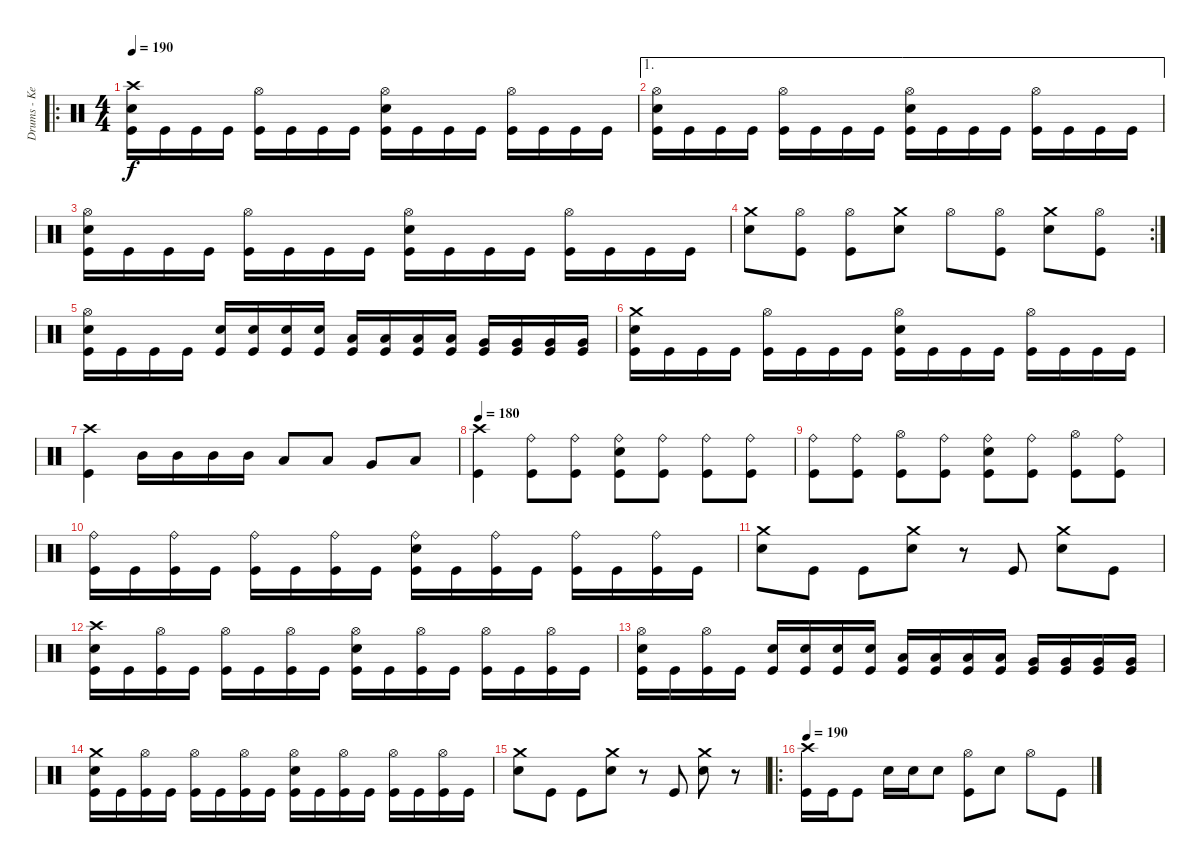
\track ("Drums - Kevin" "Drums - Ke") {instrument percussion}
\staff {score}
\articulation defaults
\ro
\ts (4 4)
\tempo 190
\clef neutral
\ks c
("Crash high (hit)" "Electric Snare (hit)" "Kick (hit)").16{dy f} "Kick (hit)".16 "Kick (hit)".16 "Kick (hit)".16 ("Hi-Hat (open)" "Kick (hit)").16 "Kick (hit)".16 "Kick (hit)".16 "Kick (hit)".16 ("Hi-Hat (open)" "Electric Snare (hit)" "Kick (hit)").16 "Kick (hit)".16 "Kick (hit)".16 "Kick (hit)".16 ("Hi-Hat (open)" "Kick (hit)").16 "Kick (hit)".16 "Kick (hit)".16 "Kick (hit)".16 |
\ae 1
("Hi-Hat (open)" "Electric Snare (hit)" "Kick (hit)").16 "Kick (hit)".16 "Kick (hit)".16 "Kick (hit)".16 ("Hi-Hat (open)" "Kick (hit)").16 "Kick (hit)".16 "Kick (hit)".16 "Kick (hit)".16 ("Hi-Hat (open)" "Electric Snare (hit)" "Kick (hit)").16 "Kick (hit)".16 "Kick (hit)".16 "Kick (hit)".16 ("Hi-Hat (open)" "Kick (hit)").16 "Kick (hit)".16 "Kick (hit)".16 "Kick (hit)".16 |
("Hi-Hat (open)" "Electric Snare (hit)" "Kick (hit)").16 "Kick (hit)".16 "Kick (hit)".16 "Kick (hit)".16 ("Hi-Hat (open)" "Kick (hit)").16 "Kick (hit)".16 "Kick (hit)".16 "Kick (hit)".16 ("Hi-Hat (open)" "Electric Snare (hit)" "Kick (hit)").16 "Kick (hit)".16 "Kick (hit)".16 "Kick (hit)".16 ("Hi-Hat (open)" "Kick (hit)").16 "Kick (hit)".16 "Kick (hit)".16 "Kick (hit)".16 |
\rc 2
("Crash medium (hit)" "Electric Snare (hit)").8 ("Hi-Hat (open)" "Kick (hit)").8 ("Hi-Hat (open)" "Kick (hit)").8 ("Crash medium (hit)" "Electric Snare (hit)").8 "Hi-Hat (open)".8 ("Hi-Hat (open)" "Kick (hit)").8 ("Crash medium (hit)" "Electric Snare (hit)").8 ("Hi-Hat (open)" "Kick (hit)").8 |
("Hi-Hat (open)" "Electric Snare (hit)" "Kick (hit)").16 "Kick (hit)".16 "Kick (hit)".16 "Kick (hit)".16 ("Electric Snare (hit)" "Kick (hit)").16 ("Electric Snare (hit)" "Kick (hit)").16 ("Electric Snare (hit)" "Kick (hit)").16 ("Electric Snare (hit)" "Kick (hit)").16 ("Low Tom (hit)" "Kick (hit)").16 ("Low Tom (hit)" "Kick (hit)").16 ("Low Tom (hit)" "Kick (hit)").16 ("Low Tom (hit)" "Kick (hit)").16 ("Very Low Tom (hit)" "Kick (hit)").16 ("Very Low Tom (hit)" "Kick (hit)").16 ("Very Low Tom (hit)" "Kick (hit)").16 ("Very Low Tom (hit)" "Kick (hit)").16 |
("Crash medium (hit)" "Electric Snare (hit)" "Kick (hit)").16 "Kick (hit)".16 "Kick (hit)".16 "Kick (hit)".16 ("Hi-Hat (open)" "Kick (hit)").16 "Kick (hit)".16 "Kick (hit)".16 "Kick (hit)".16 ("Hi-Hat (open)" "Electric Snare (hit)" "Kick (hit)").16 "Kick (hit)".16 "Kick (hit)".16 "Kick (hit)".16 ("Hi-Hat (open)" "Kick (hit)").16 "Kick (hit)".16 "Kick (hit)".16 "Kick (hit)".16 |
("Crash high (hit)" "Kick (hit)").4 "Mid Tom (hit)".16 "Mid Tom (hit)".16 "Mid Tom (hit)".16 "Mid Tom (hit)".16 "Low Tom (hit)".8 "Low Tom (hit)".8 "Very Low Tom (hit)".8 "Low Floor Tom (hit)".8 |
\tempo 180
("Crash high (hit)" "Kick (hit)").4 ("Ride (bell)" "Kick (hit)").8 ("Ride (bell)" "Kick (hit)").8 ("Ride (bell)" "Electric Snare (hit)" "Kick (hit)").8 ("Ride (bell)" "Kick (hit)").8 ("Ride (bell)" "Kick (hit)").8 ("Ride (bell)" "Kick (hit)").8 |
("Ride (bell)" "Kick (hit)").8 ("Ride (bell)" "Kick (hit)").8 ("Hi-Hat (open)" "Kick (hit)").8 ("Ride (bell)" "Kick (hit)").8 ("Ride (bell)" "Electric Snare (hit)" "Kick (hit)").8 ("Ride (bell)" "Kick (hit)").8 ("Hi-Hat (open)" "Kick (hit)").8 ("Ride (bell)" "Kick (hit)").8 |
("Ride (bell)" "Kick (hit)").16 "Kick (hit)".16 ("Ride (bell)" "Kick (hit)").16 "Kick (hit)".16 ("Ride (bell)" "Kick (hit)").16 "Kick (hit)".16 ("Ride (bell)" "Kick (hit)").16 "Kick (hit)".16 ("Ride (bell)" "Electric Snare (hit)" "Kick (hit)").16 "Kick (hit)".16 ("Ride (bell)" "Kick (hit)").16 "Kick (hit)".16 ("Ride (bell)" "Kick (hit)").16 "Kick (hit)".16 ("Ride (bell)" "Kick (hit)").16 "Kick (hit)".16 |
("Crash medium (hit)" "Electric Snare (hit)").8 "Kick (hit)".8 "Kick (hit)".8 ("Crash medium (hit)" "Electric Snare (hit)").8 r.8 "Kick (hit)".8 ("Crash medium (hit)" "Electric Snare (hit)").8 "Kick (hit)".8 |
("Crash high (hit)" "Electric Snare (hit)" "Kick (hit)").16 "Kick (hit)".16 ("Hi-Hat (open)" "Kick (hit)").16 "Kick (hit)".16 ("Hi-Hat (open)" "Kick (hit)").16 "Kick (hit)".16 ("Hi-Hat (open)" "Kick (hit)").16 "Kick (hit)".16 ("Hi-Hat (open)" "Electric Snare (hit)" "Kick (hit)").16 "Kick (hit)".16 ("Hi-Hat (open)" "Kick (hit)").16 "Kick (hit)".16 ("Hi-Hat (open)" "Kick (hit)").16 "Kick (hit)".16 ("Hi-Hat (open)" "Kick (hit)").16 "Kick (hit)".16 |
("Hi-Hat (open)" "Electric Snare (hit)" "Kick (hit)").16 "Kick (hit)".16 ("Hi-Hat (open)" "Kick (hit)").16 "Kick (hit)".16 ("Electric Snare (hit)" "Kick (hit)").16 ("Electric Snare (hit)" "Kick (hit)").16 ("Electric Snare (hit)" "Kick (hit)").16 ("Electric Snare (hit)" "Kick (hit)").16 ("Low Tom (hit)" "Kick (hit)").16 ("Low Tom (hit)" "Kick (hit)").16 ("Low Tom (hit)" "Kick (hit)").16 ("Low Tom (hit)" "Kick (hit)").16 ("Very Low Tom (hit)" "Kick (hit)").16 ("Very Low Tom (hit)" "Kick (hit)").16 ("Very Low Tom (hit)" "Kick (hit)").16 ("Very Low Tom (hit)" "Kick (hit)").16 |
("Crash medium (hit)" "Electric Snare (hit)" "Kick (hit)").16 "Kick (hit)".16 ("Hi-Hat (open)" "Kick (hit)").16 "Kick (hit)".16 ("Hi-Hat (open)" "Kick (hit)").16 "Kick (hit)".16 ("Hi-Hat (open)" "Kick (hit)").16 "Kick (hit)".16 ("Hi-Hat (open)" "Electric Snare (hit)" "Kick (hit)").16 "Kick (hit)".16 ("Hi-Hat (open)" "Kick (hit)").16 "Kick (hit)".16 ("Hi-Hat (open)" "Kick (hit)").16 "Kick (hit)".16 ("Hi-Hat (open)" "Kick (hit)").16 "Kick (hit)".16 |
("Crash medium (hit)" "Electric Snare (hit)").8 "Kick (hit)".8 "Kick (hit)".8 ("Crash medium (hit)" "Electric Snare (hit)").8 r.8 "Kick (hit)".8 ("Crash medium (hit)" "Electric Snare (hit)").8 r.8 |
\ro
\tempo 190
("Crash high (hit)" "Kick (hit)").16 "Kick (hit)".16 "Kick (hit)".8 "Electric Snare (hit)".16 "Electric Snare (hit)".16 "Electric Snare (hit)".8 ("Hi-Hat (open)" "Kick (hit)").8 "Electric Snare (hit)".8 "Hi-Hat (open)".8 "Kick (hit)".8
